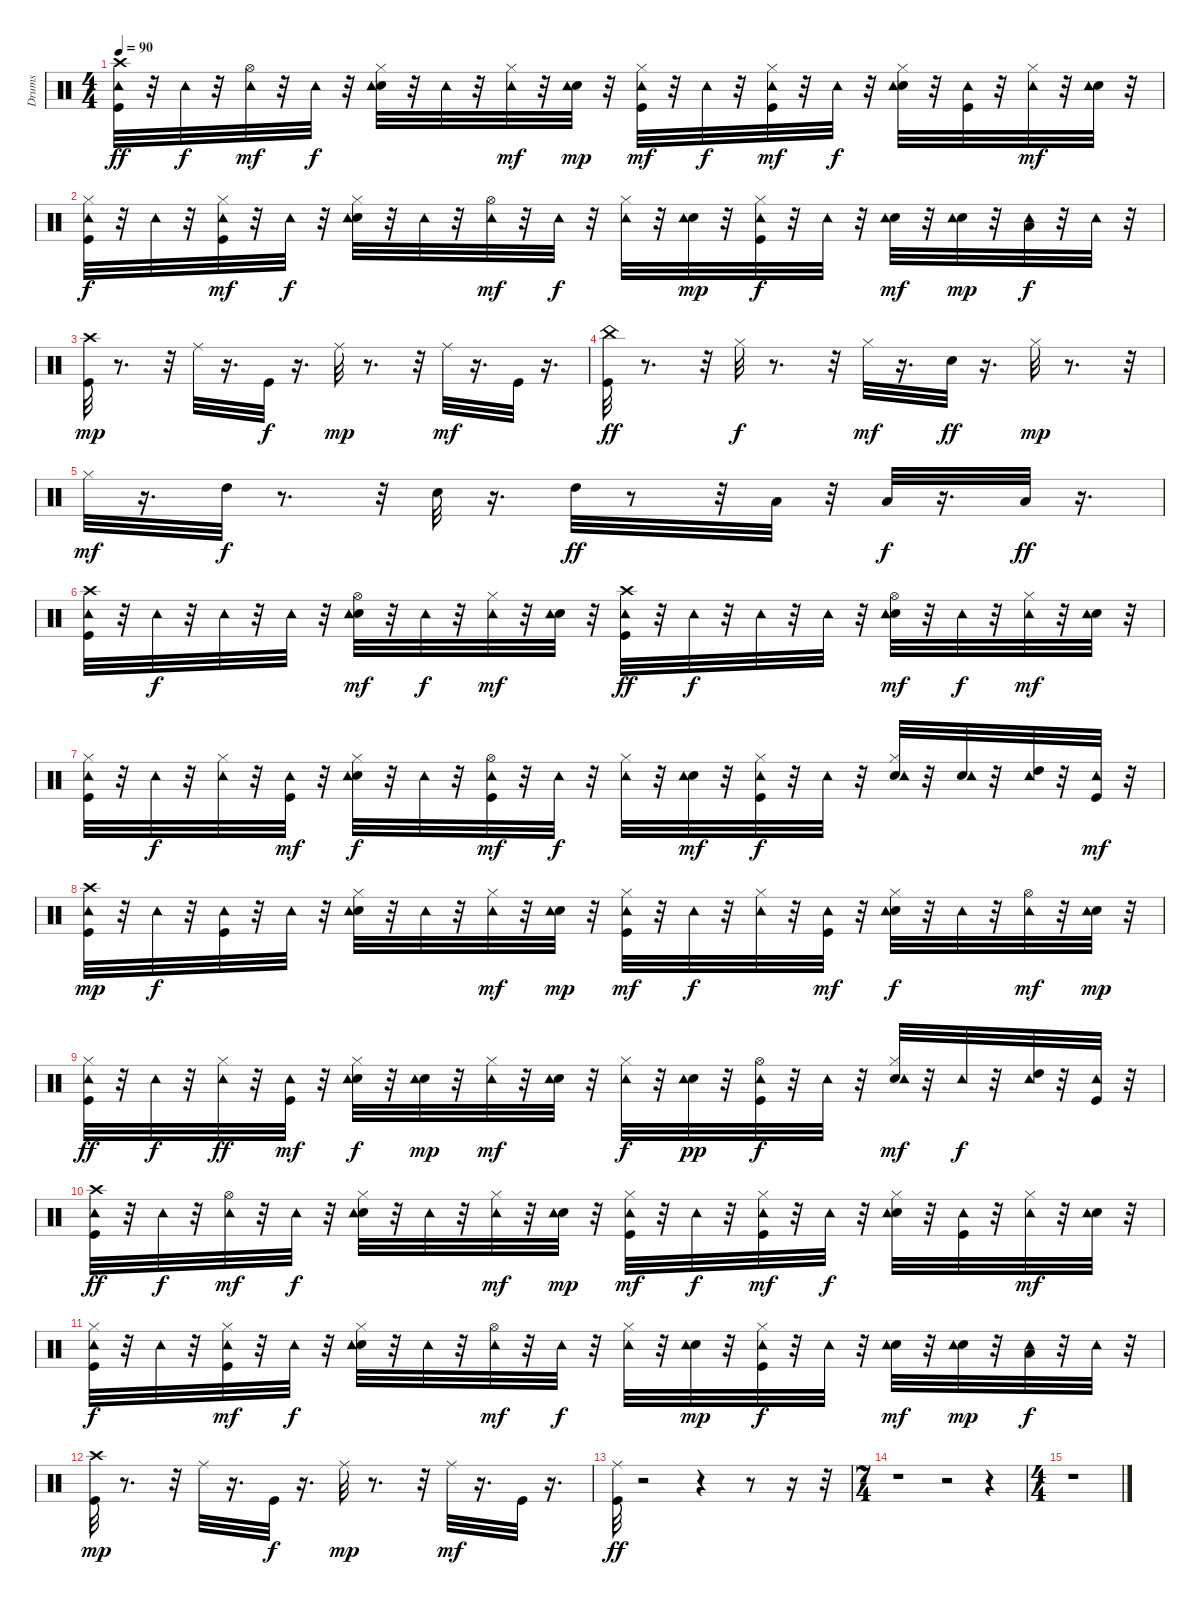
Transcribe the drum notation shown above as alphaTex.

\track ("Drums               " "Drums     ") {instrument percussion}
\staff {score}
\articulation defaults
\ts (4 4)
\tempo 90
\clef neutral
\ks c
("Crash high (hit)" "Kick (hit)" "Tambourine (hit)").32{dy ff} r.32 "Tambourine (hit)".32{dy f} r.32 ("Hi-Hat (open)" "Tambourine (hit)").32{dy mf} r.32 "Tambourine (hit)".32{dy f} r.32 ("Hi-Hat (closed)" "Electric Snare (hit)" "Tambourine (hit)").32 r.32 "Tambourine (hit)".32 r.32 ("Hi-Hat (closed)" "Tambourine (hit)").32{dy mf} r.32 ("Electric Snare (hit)" "Tambourine (hit)").32{dy mp} r.32 ("Hi-Hat (closed)" "Kick (hit)" "Tambourine (hit)").32{dy mf} r.32 "Tambourine (hit)".32{dy f} r.32 ("Kick (hit)" "Hi-Hat (closed)" "Tambourine (hit)").32{dy mf} r.32 "Tambourine (hit)".32{dy f} r.32 ("Hi-Hat (closed)" "Electric Snare (hit)" "Tambourine (hit)").32 r.32 ("Kick (hit)" "Tambourine (hit)").32 r.32 ("Hi-Hat (closed)" "Tambourine (hit)").32{dy mf} r.32 ("Electric Snare (hit)" "Tambourine (hit)").32 r.32 |
("Hi-Hat (closed)" "Kick (hit)" "Tambourine (hit)").32{dy f} r.32 "Tambourine (hit)".32 r.32 ("Hi-Hat (closed)" "Kick (hit)" "Tambourine (hit)").32{dy mf} r.32 "Tambourine (hit)".32{dy f} r.32 ("Hi-Hat (closed)" "Electric Snare (hit)" "Tambourine (hit)").32 r.32 "Tambourine (hit)".32 r.32 ("Hi-Hat (open)" "Tambourine (hit)").32{dy mf} r.32 "Tambourine (hit)".32{dy f} r.32 ("Hi-Hat (closed)" "Tambourine (hit)").32 r.32 ("Electric Snare (hit)" "Tambourine (hit)").32{dy mp} r.32 ("Hi-Hat (closed)" "Kick (hit)" "Tambourine (hit)").32{dy f} r.32 "Tambourine (hit)".32 r.32 ("Electric Snare (hit)" "Tambourine (hit)").32{dy mf} r.32 ("Electric Snare (hit)" "Tambourine (hit)").32{dy mp} r.32 ("Low Tom (hit)" "Tambourine (hit)").32{dy f} r.32 "Tambourine (hit)".32 r.32 |
("Crash high (hit)" "Kick (hit)").32{dy mp} r.8{d} r.32 "Ride (middle)".32 r.16{d} "Kick (hit)".32{dy f} r.16{d} "Ride (middle)".32{dy mp} r.8{d} r.32 "Ride (middle)".32{dy mf} r.16{d} "Kick (hit)".32 r.16{d} |
("Kick (hit)" "China (hit)").32{dy ff} r.8{d} r.32 "Hi-Hat (closed)".32{dy f} r.8{d} r.32 "Hi-Hat (closed)".32{dy mf} r.16{d} "Electric Snare (hit)".32{dy ff} r.16{d} "Hi-Hat (closed)".32{dy mp} r.8{d} r.32 |
"Hi-Hat (closed)".32{dy mf} r.16{d} "High Tom (hit)".32{dy f} r.8{d} r.32 "Electric Snare (hit)".32 r.16{d} "High Tom (hit)".32{dy ff} r.8 r.32 "Low Tom (hit)".32 r.32 "Low Floor Tom (hit)".32{dy f} r.16{d} "Low Floor Tom (hit)".32{dy ff} r.16{d} |
("Crash high (hit)" "Kick (hit)" "Tambourine (hit)").32 r.32 "Tambourine (hit)".32{dy f} r.32 "Tambourine (hit)".32 r.32 "Tambourine (hit)".32 r.32 ("Electric Snare (hit)" "Hi-Hat (open)" "Tambourine (hit)").32{dy mf} r.32 "Tambourine (hit)".32{dy f} r.32 ("Hi-Hat (closed)" "Tambourine (hit)").32{dy mf} r.32 ("Electric Snare (hit)" "Tambourine (hit)").32 r.32 ("Crash high (hit)" "Kick (hit)" "Tambourine (hit)").32{dy ff} r.32 "Tambourine (hit)".32{dy f} r.32 "Tambourine (hit)".32 r.32 "Tambourine (hit)".32 r.32 ("Electric Snare (hit)" "Hi-Hat (open)" "Tambourine (hit)").32{dy mf} r.32 "Tambourine (hit)".32{dy f} r.32 ("Hi-Hat (closed)" "Tambourine (hit)").32{dy mf} r.32 ("Electric Snare (hit)" "Tambourine (hit)").32 r.32 |
("Hi-Hat (closed)" "Kick (hit)" "Tambourine (hit)").32 r.32 "Tambourine (hit)".32{dy f} r.32 ("Hi-Hat (closed)" "Tambourine (hit)").32 r.32 ("Kick (hit)" "Tambourine (hit)").32{dy mf} r.32 ("Electric Snare (hit)" "Hi-Hat (closed)" "Tambourine (hit)").32{dy f} r.32 "Tambourine (hit)".32 r.32 ("Kick (hit)" "Hi-Hat (open)" "Tambourine (hit)").32{dy mf} r.32 "Tambourine (hit)".32{dy f} r.32 ("Hi-Hat (closed)" "Tambourine (hit)").32 r.32 ("Electric Snare (hit)" "Tambourine (hit)").32{dy mf} r.32 ("Hi-Hat (closed)" "Kick (hit)" "Tambourine (hit)").32{dy f} r.32 "Tambourine (hit)".32 r.32 ("Electric Snare (hit)" "Hi-Hat (closed)" "Tambourine (hit)").32 r.32 ("Electric Snare (hit)" "Tambourine (hit)").32 r.32 ("High Tom (hit)" "Tambourine (hit)").32 r.32 ("Kick (hit)" "Tambourine (hit)").32{dy mf} r.32 |
("Crash high (hit)" "Kick (hit)" "Tambourine (hit)").32{dy mp} r.32 "Tambourine (hit)".32{dy f} r.32 ("Kick (hit)" "Tambourine (hit)").32 r.32 "Tambourine (hit)".32 r.32 ("Hi-Hat (closed)" "Electric Snare (hit)" "Tambourine (hit)").32 r.32 "Tambourine (hit)".32 r.32 ("Hi-Hat (closed)" "Tambourine (hit)").32{dy mf} r.32 ("Electric Snare (hit)" "Tambourine (hit)").32{dy mp} r.32 ("Hi-Hat (closed)" "Kick (hit)" "Tambourine (hit)").32{dy mf} r.32 "Tambourine (hit)".32{dy f} r.32 ("Hi-Hat (closed)" "Tambourine (hit)").32 r.32 ("Kick (hit)" "Tambourine (hit)").32{dy mf} r.32 ("Electric Snare (hit)" "Hi-Hat (closed)" "Tambourine (hit)").32{dy f} r.32 "Tambourine (hit)".32 r.32 ("Hi-Hat (open)" "Tambourine (hit)").32{dy mf} r.32 ("Electric Snare (hit)" "Tambourine (hit)").32{dy mp} r.32 |
("Hi-Hat (closed)" "Kick (hit)" "Tambourine (hit)").32{dy ff} r.32 "Tambourine (hit)".32{dy f} r.32 ("Hi-Hat (closed)" "Tambourine (hit)").32{dy ff} r.32 ("Kick (hit)" "Tambourine (hit)").32{dy mf} r.32 ("Hi-Hat (closed)" "Electric Snare (hit)" "Tambourine (hit)").32{dy f} r.32 ("Electric Snare (hit)" "Tambourine (hit)").32{dy mp} r.32 ("Hi-Hat (closed)" "Tambourine (hit)").32{dy mf} r.32 ("Electric Snare (hit)" "Tambourine (hit)").32 r.32 ("Hi-Hat (closed)" "Tambourine (hit)").32{dy f} r.32 ("Electric Snare (hit)" "Tambourine (hit)").32{dy pp} r.32 ("Hi-Hat (open)" "Kick (hit)" "Tambourine (hit)").32{dy f} r.32 "Tambourine (hit)".32 r.32 ("Electric Snare (hit)" "Hi-Hat (closed)" "Tambourine (hit)").32{dy mf} r.32 "Tambourine (hit)".32{dy f} r.32 ("High Tom (hit)" "Tambourine (hit)").32 r.32 ("Kick (hit)" "Tambourine (hit)").32 r.32 |
("Crash high (hit)" "Kick (hit)" "Tambourine (hit)").32{dy ff} r.32 "Tambourine (hit)".32{dy f} r.32 ("Hi-Hat (open)" "Tambourine (hit)").32{dy mf} r.32 "Tambourine (hit)".32{dy f} r.32 ("Hi-Hat (closed)" "Electric Snare (hit)" "Tambourine (hit)").32 r.32 "Tambourine (hit)".32 r.32 ("Hi-Hat (closed)" "Tambourine (hit)").32{dy mf} r.32 ("Electric Snare (hit)" "Tambourine (hit)").32{dy mp} r.32 ("Hi-Hat (closed)" "Kick (hit)" "Tambourine (hit)").32{dy mf} r.32 "Tambourine (hit)".32{dy f} r.32 ("Kick (hit)" "Hi-Hat (closed)" "Tambourine (hit)").32{dy mf} r.32 "Tambourine (hit)".32{dy f} r.32 ("Hi-Hat (closed)" "Electric Snare (hit)" "Tambourine (hit)").32 r.32 ("Kick (hit)" "Tambourine (hit)").32 r.32 ("Hi-Hat (closed)" "Tambourine (hit)").32{dy mf} r.32 ("Electric Snare (hit)" "Tambourine (hit)").32 r.32 |
("Hi-Hat (closed)" "Kick (hit)" "Tambourine (hit)").32{dy f} r.32 "Tambourine (hit)".32 r.32 ("Hi-Hat (closed)" "Kick (hit)" "Tambourine (hit)").32{dy mf} r.32 "Tambourine (hit)".32{dy f} r.32 ("Hi-Hat (closed)" "Electric Snare (hit)" "Tambourine (hit)").32 r.32 "Tambourine (hit)".32 r.32 ("Hi-Hat (open)" "Tambourine (hit)").32{dy mf} r.32 "Tambourine (hit)".32{dy f} r.32 ("Hi-Hat (closed)" "Tambourine (hit)").32 r.32 ("Electric Snare (hit)" "Tambourine (hit)").32{dy mp} r.32 ("Hi-Hat (closed)" "Kick (hit)" "Tambourine (hit)").32{dy f} r.32 "Tambourine (hit)".32 r.32 ("Electric Snare (hit)" "Tambourine (hit)").32{dy mf} r.32 ("Electric Snare (hit)" "Tambourine (hit)").32{dy mp} r.32 ("Low Tom (hit)" "Tambourine (hit)").32{dy f} r.32 "Tambourine (hit)".32 r.32 |
("Crash high (hit)" "Kick (hit)").32{dy mp} r.8{d} r.32 "Ride (middle)".32 r.16{d} "Kick (hit)".32{dy f} r.16{d} "Ride (middle)".32{dy mp} r.8{d} r.32 "Ride (middle)".32{dy mf} r.16{d} "Kick (hit)".32 r.16{d} |
("Kick (hit)" "Ride (middle)").32{dy ff} r.2 r.4 r.8 r.16 r.32 |
\ts (7 4)
r.1 r.2 r.4 |
\ts (4 4)
r.1
